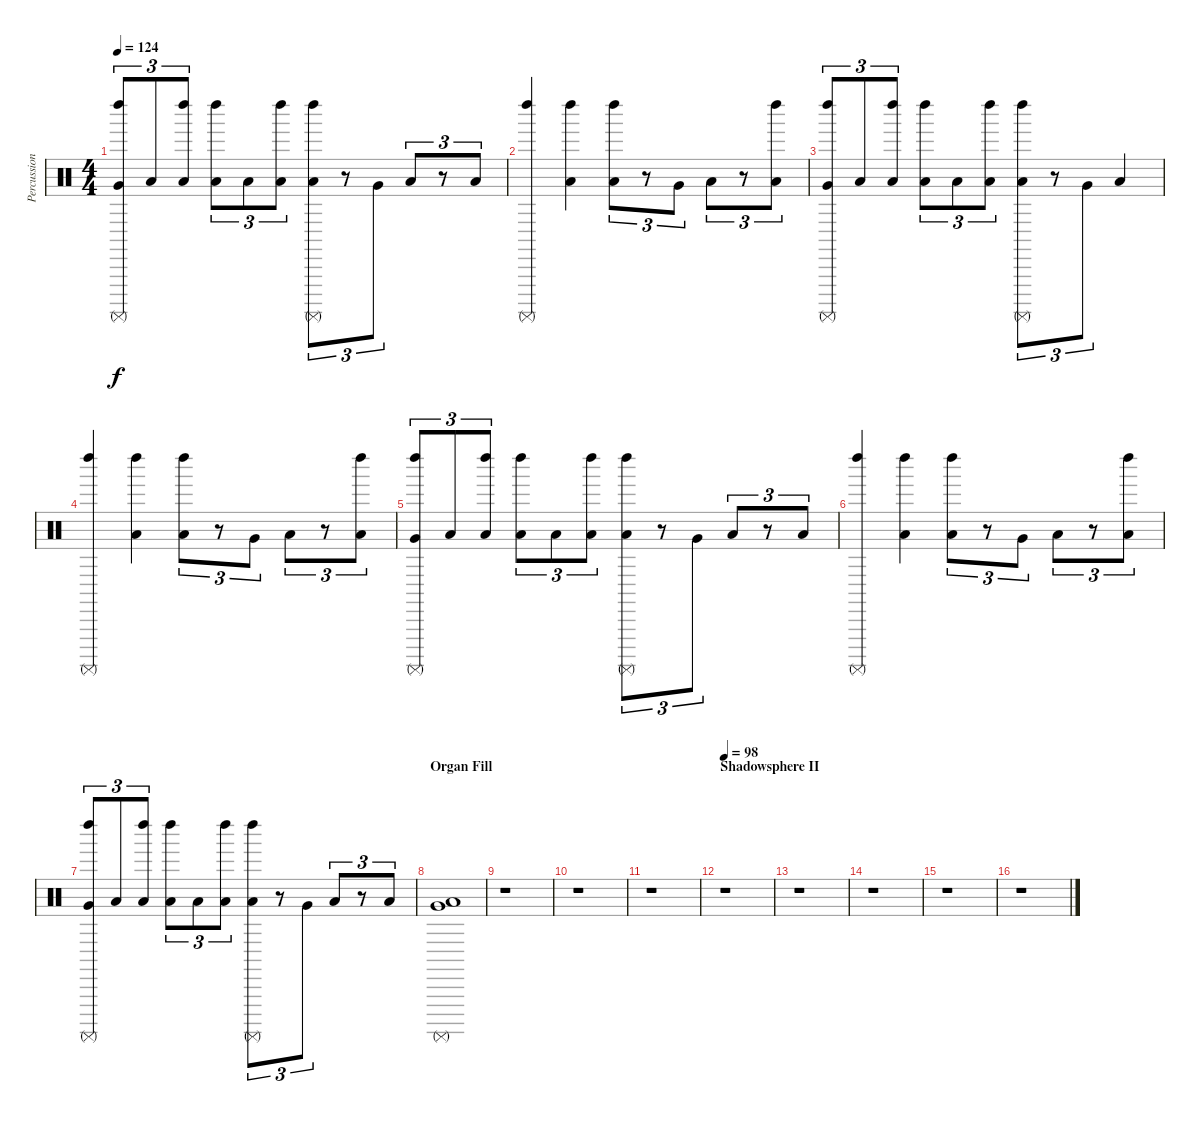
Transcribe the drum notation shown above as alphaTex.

\track ("Percussion" "Percussion") {instrument percussion}
\staff {score}
\articulation defaults
\ts (4 4)
\tempo 124
\clef neutral
\ks c
("Left Maraca (hit)" "Very Low Tom (hit)" "Surdo (mute)").8{tu (3 2) dy f} "Low Floor Tom (hit)".8{tu (3 2)} ("Left Maraca (hit)" "Low Floor Tom (hit)").8{tu (3 2)} ("Left Maraca (hit)" "Low Floor Tom (hit)").8{tu (3 2)} "Low Floor Tom (hit)".8{tu (3 2)} ("Left Maraca (hit)" "Low Floor Tom (hit)").8{tu (3 2)} ("Left Maraca (hit)" "Low Floor Tom (hit)" "Surdo (mute)").8{tu (3 2)} r.8{tu (3 2)} "Very Low Tom (hit)".8{tu (3 2)} "Low Floor Tom (hit)".8{tu (3 2)} r.8{tu (3 2)} "Low Floor Tom (hit)".8{tu (3 2)} |
("Left Maraca (hit)" "Surdo (mute)").4 ("Left Maraca (hit)" "Low Floor Tom (hit)").4 ("Left Maraca (hit)" "Low Floor Tom (hit)").8{tu (3 2)} r.8{tu (3 2)} "Very Low Tom (hit)".8{tu (3 2)} "Low Floor Tom (hit)".8{tu (3 2)} r.8{tu (3 2)} ("Left Maraca (hit)" "Low Floor Tom (hit)").8{tu (3 2)} |
("Left Maraca (hit)" "Very Low Tom (hit)" "Surdo (mute)").8{tu (3 2)} "Low Floor Tom (hit)".8{tu (3 2)} ("Left Maraca (hit)" "Low Floor Tom (hit)").8{tu (3 2)} ("Left Maraca (hit)" "Low Floor Tom (hit)").8{tu (3 2)} "Low Floor Tom (hit)".8{tu (3 2)} ("Left Maraca (hit)" "Low Floor Tom (hit)").8{tu (3 2)} ("Left Maraca (hit)" "Low Floor Tom (hit)" "Surdo (mute)").8{tu (3 2)} r.8{tu (3 2)} "Very Low Tom (hit)".8{tu (3 2)} "Low Floor Tom (hit)".4 |
("Left Maraca (hit)" "Surdo (mute)").4 ("Left Maraca (hit)" "Low Floor Tom (hit)").4 ("Left Maraca (hit)" "Low Floor Tom (hit)").8{tu (3 2)} r.8{tu (3 2)} "Very Low Tom (hit)".8{tu (3 2)} "Low Floor Tom (hit)".8{tu (3 2)} r.8{tu (3 2)} ("Left Maraca (hit)" "Low Floor Tom (hit)").8{tu (3 2)} |
("Left Maraca (hit)" "Very Low Tom (hit)" "Surdo (mute)").8{tu (3 2)} "Low Floor Tom (hit)".8{tu (3 2)} ("Left Maraca (hit)" "Low Floor Tom (hit)").8{tu (3 2)} ("Left Maraca (hit)" "Low Floor Tom (hit)").8{tu (3 2)} "Low Floor Tom (hit)".8{tu (3 2)} ("Left Maraca (hit)" "Low Floor Tom (hit)").8{tu (3 2)} ("Left Maraca (hit)" "Low Floor Tom (hit)" "Surdo (mute)").8{tu (3 2)} r.8{tu (3 2)} "Very Low Tom (hit)".8{tu (3 2)} "Low Floor Tom (hit)".8{tu (3 2)} r.8{tu (3 2)} "Low Floor Tom (hit)".8{tu (3 2)} |
("Left Maraca (hit)" "Surdo (mute)").4 ("Left Maraca (hit)" "Low Floor Tom (hit)").4 ("Left Maraca (hit)" "Low Floor Tom (hit)").8{tu (3 2)} r.8{tu (3 2)} "Very Low Tom (hit)".8{tu (3 2)} "Low Floor Tom (hit)".8{tu (3 2)} r.8{tu (3 2)} ("Left Maraca (hit)" "Low Floor Tom (hit)").8{tu (3 2)} |
("Left Maraca (hit)" "Very Low Tom (hit)" "Surdo (mute)").8{tu (3 2)} "Low Floor Tom (hit)".8{tu (3 2)} ("Left Maraca (hit)" "Low Floor Tom (hit)").8{tu (3 2)} ("Left Maraca (hit)" "Low Floor Tom (hit)").8{tu (3 2)} "Low Floor Tom (hit)".8{tu (3 2)} ("Left Maraca (hit)" "Low Floor Tom (hit)").8{tu (3 2)} ("Left Maraca (hit)" "Low Floor Tom (hit)" "Surdo (mute)").8{tu (3 2)} r.8{tu (3 2)} "Very Low Tom (hit)".8{tu (3 2)} "Low Floor Tom (hit)".8{tu (3 2)} r.8{tu (3 2)} "Low Floor Tom (hit)".8{tu (3 2)} |
\section ("" "Organ Fill")
("Very Low Tom (hit)" "Low Floor Tom (hit)" "Surdo (mute)").1 |
r.1 |
r.1 |
r.1 |
\section ("" "Shadowsphere II")
\tempo 98
r.1 |
r.1 |
r.1 |
r.1 |
r.1
